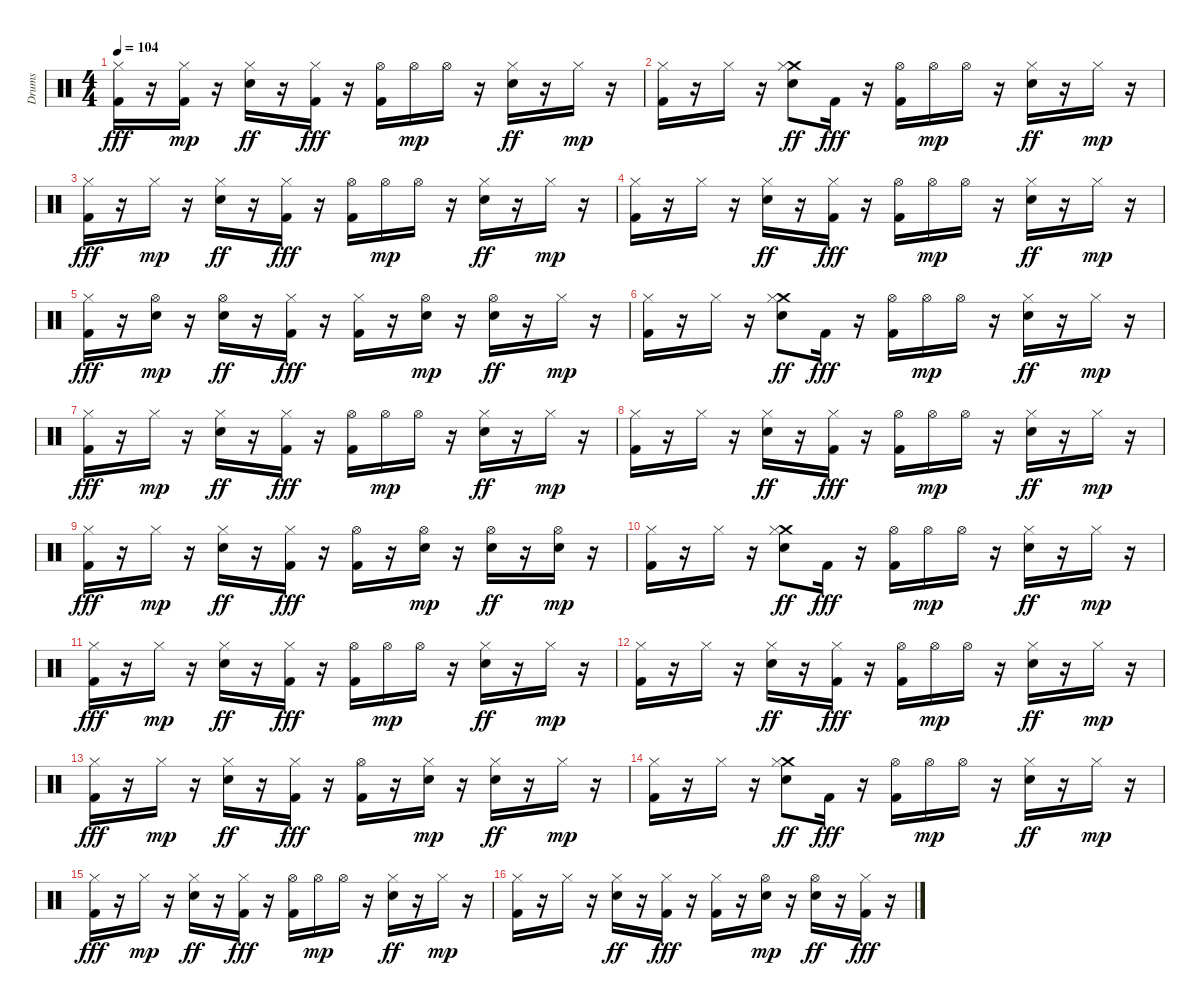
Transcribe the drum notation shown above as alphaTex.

\track ("Drums" "Drums") {instrument percussion}
\staff {score}
\articulation defaults
\ts (4 4)
\tempo 104
\clef neutral
\ks c
("Hi-Hat (closed)" "Kick (hit) 2").16{dy fff} r.16 ("Kick (hit) 2" "Hi-Hat (closed)").16{dy mp} r.16 ("Hi-Hat (closed)" "Snare (hit) 2").16{dy ff} r.16 ("Hi-Hat (closed)" "Kick (hit) 2").16{dy fff} r.16 ("Hi-Hat (open)" "Kick (hit) 2").16 "Hi-Hat (open)".16{dy mp} "Hi-Hat (open)".16 r.16 ("Hi-Hat (closed)" "Snare (hit) 2").16{dy ff} r.16 "Hi-Hat (closed)".16{dy mp} r.16 |
("Kick (hit) 2" "Hi-Hat (closed)").16 r.16 "Hi-Hat (closed)".16 r.16 ("Crash medium (hit)" "Hi-Hat (closed)" "Snare (hit) 2").8{dy ff} "Kick (hit) 2".16{dy fff} r.16 ("Hi-Hat (open)" "Kick (hit) 2").16 "Hi-Hat (open)".16{dy mp} "Hi-Hat (open)".16 r.16 ("Hi-Hat (closed)" "Snare (hit) 2").16{dy ff} r.16 "Hi-Hat (closed)".16{dy mp} r.16 |
("Hi-Hat (closed)" "Kick (hit) 2").16{dy fff} r.16 "Hi-Hat (closed)".16{dy mp} r.16 ("Hi-Hat (closed)" "Snare (hit) 2").16{dy ff} r.16 ("Hi-Hat (closed)" "Kick (hit) 2").16{dy fff} r.16 ("Hi-Hat (open)" "Kick (hit) 2").16 "Hi-Hat (open)".16{dy mp} "Hi-Hat (open)".16 r.16 ("Hi-Hat (closed)" "Snare (hit) 2").16{dy ff} r.16 "Hi-Hat (closed)".16{dy mp} r.16 |
("Kick (hit) 2" "Hi-Hat (closed)").16 r.16 "Hi-Hat (closed)".16 r.16 ("Hi-Hat (closed)" "Snare (hit) 2").16{dy ff} r.16 ("Hi-Hat (closed)" "Kick (hit) 2").16{dy fff} r.16 ("Hi-Hat (open)" "Kick (hit) 2").16 "Hi-Hat (open)".16{dy mp} "Hi-Hat (open)".16 r.16 ("Hi-Hat (closed)" "Snare (hit) 2").16{dy ff} r.16 "Hi-Hat (closed)".16{dy mp} r.16 |
("Hi-Hat (closed)" "Kick (hit) 2").16{dy fff} r.16 ("Snare (hit) 2" "Hi-Hat (open)").16{dy mp} r.16 ("Hi-Hat (open)" "Snare (hit) 2").16{dy ff} r.16 ("Hi-Hat (closed)" "Kick (hit) 2").16{dy fff} r.16 ("Hi-Hat (closed)" "Kick (hit) 2").16 r.16 ("Snare (hit) 2" "Hi-Hat (open)").16{dy mp} r.16 ("Hi-Hat (open)" "Snare (hit) 2").16{dy ff} r.16 "Hi-Hat (closed)".16{dy mp} r.16 |
("Kick (hit) 2" "Hi-Hat (closed)").16 r.16 "Hi-Hat (closed)".16 r.16 ("Crash medium (hit)" "Hi-Hat (closed)" "Snare (hit) 2").8{dy ff} "Kick (hit) 2".16{dy fff} r.16 ("Hi-Hat (open)" "Kick (hit) 2").16 "Hi-Hat (open)".16{dy mp} "Hi-Hat (open)".16 r.16 ("Hi-Hat (closed)" "Snare (hit) 2").16{dy ff} r.16 "Hi-Hat (closed)".16{dy mp} r.16 |
("Hi-Hat (closed)" "Kick (hit) 2").16{dy fff} r.16 "Hi-Hat (closed)".16{dy mp} r.16 ("Hi-Hat (closed)" "Snare (hit) 2").16{dy ff} r.16 ("Hi-Hat (closed)" "Kick (hit) 2").16{dy fff} r.16 ("Hi-Hat (open)" "Kick (hit) 2").16 "Hi-Hat (open)".16{dy mp} "Hi-Hat (open)".16 r.16 ("Hi-Hat (closed)" "Snare (hit) 2").16{dy ff} r.16 "Hi-Hat (closed)".16{dy mp} r.16 |
("Kick (hit) 2" "Hi-Hat (closed)").16 r.16 "Hi-Hat (closed)".16 r.16 ("Hi-Hat (closed)" "Snare (hit) 2").16{dy ff} r.16 ("Hi-Hat (closed)" "Kick (hit) 2").16{dy fff} r.16 ("Hi-Hat (open)" "Kick (hit) 2").16 "Hi-Hat (open)".16{dy mp} "Hi-Hat (open)".16 r.16 ("Hi-Hat (closed)" "Snare (hit) 2").16{dy ff} r.16 "Hi-Hat (closed)".16{dy mp} r.16 |
("Hi-Hat (closed)" "Kick (hit) 2").16{dy fff} r.16 "Hi-Hat (closed)".16{dy mp} r.16 ("Hi-Hat (closed)" "Snare (hit) 2").16{dy ff} r.16 ("Hi-Hat (closed)" "Kick (hit) 2").16{dy fff} r.16 ("Hi-Hat (open)" "Kick (hit) 2").16 r.16 ("Snare (hit) 2" "Hi-Hat (open)").16{dy mp} r.16 ("Hi-Hat (open)" "Snare (hit) 2").16{dy ff} r.16 ("Snare (hit) 2" "Hi-Hat (open)").16{dy mp} r.16 |
("Kick (hit) 2" "Hi-Hat (closed)").16 r.16 "Hi-Hat (closed)".16 r.16 ("Crash medium (hit)" "Hi-Hat (closed)" "Snare (hit) 2").8{dy ff} "Kick (hit) 2".16{dy fff} r.16 ("Hi-Hat (open)" "Kick (hit) 2").16 "Hi-Hat (open)".16{dy mp} "Hi-Hat (open)".16 r.16 ("Hi-Hat (closed)" "Snare (hit) 2").16{dy ff} r.16 "Hi-Hat (closed)".16{dy mp} r.16 |
("Hi-Hat (closed)" "Kick (hit) 2").16{dy fff} r.16 "Hi-Hat (closed)".16{dy mp} r.16 ("Hi-Hat (closed)" "Snare (hit) 2").16{dy ff} r.16 ("Hi-Hat (closed)" "Kick (hit) 2").16{dy fff} r.16 ("Hi-Hat (open)" "Kick (hit) 2").16 "Hi-Hat (open)".16{dy mp} "Hi-Hat (open)".16 r.16 ("Hi-Hat (closed)" "Snare (hit) 2").16{dy ff} r.16 "Hi-Hat (closed)".16{dy mp} r.16 |
("Kick (hit) 2" "Hi-Hat (closed)").16 r.16 "Hi-Hat (closed)".16 r.16 ("Hi-Hat (closed)" "Snare (hit) 2").16{dy ff} r.16 ("Hi-Hat (closed)" "Kick (hit) 2").16{dy fff} r.16 ("Hi-Hat (open)" "Kick (hit) 2").16 "Hi-Hat (open)".16{dy mp} "Hi-Hat (open)".16 r.16 ("Hi-Hat (closed)" "Snare (hit) 2").16{dy ff} r.16 "Hi-Hat (closed)".16{dy mp} r.16 |
("Hi-Hat (closed)" "Kick (hit) 2").16{dy fff} r.16 "Hi-Hat (closed)".16{dy mp} r.16 ("Hi-Hat (closed)" "Snare (hit) 2").16{dy ff} r.16 ("Hi-Hat (closed)" "Kick (hit) 2").16{dy fff} r.16 ("Hi-Hat (open)" "Kick (hit) 2").16 r.16 ("Snare (hit) 2" "Hi-Hat (closed)").16{dy mp} r.16 ("Hi-Hat (closed)" "Snare (hit) 2").16{dy ff} r.16 "Hi-Hat (closed)".16{dy mp} r.16 |
("Kick (hit) 2" "Hi-Hat (closed)").16 r.16 "Hi-Hat (closed)".16 r.16 ("Crash medium (hit)" "Hi-Hat (closed)" "Snare (hit) 2").8{dy ff} "Kick (hit) 2".16{dy fff} r.16 ("Hi-Hat (open)" "Kick (hit) 2").16 "Hi-Hat (open)".16{dy mp} "Hi-Hat (open)".16 r.16 ("Hi-Hat (closed)" "Snare (hit) 2").16{dy ff} r.16 "Hi-Hat (closed)".16{dy mp} r.16 |
("Hi-Hat (closed)" "Kick (hit) 2").16{dy fff} r.16 "Hi-Hat (closed)".16{dy mp} r.16 ("Hi-Hat (closed)" "Snare (hit) 2").16{dy ff} r.16 ("Hi-Hat (closed)" "Kick (hit) 2").16{dy fff} r.16 ("Hi-Hat (open)" "Kick (hit) 2").16 "Hi-Hat (open)".16{dy mp} "Hi-Hat (open)".16 r.16 ("Hi-Hat (closed)" "Snare (hit) 2").16{dy ff} r.16 "Hi-Hat (closed)".16{dy mp} r.16 |
("Kick (hit) 2" "Hi-Hat (closed)").16 r.16 "Hi-Hat (closed)".16 r.16 ("Hi-Hat (closed)" "Snare (hit) 2").16{dy ff} r.16 ("Hi-Hat (closed)" "Kick (hit) 2").16{dy fff} r.16 ("Hi-Hat (closed)" "Kick (hit) 2").16 r.16 ("Snare (hit) 2" "Hi-Hat (open)").16{dy mp} r.16 ("Hi-Hat (open)" "Snare (hit) 2").16{dy ff} r.16 ("Kick (hit) 2" "Hi-Hat (closed)").16{dy fff} r.16
